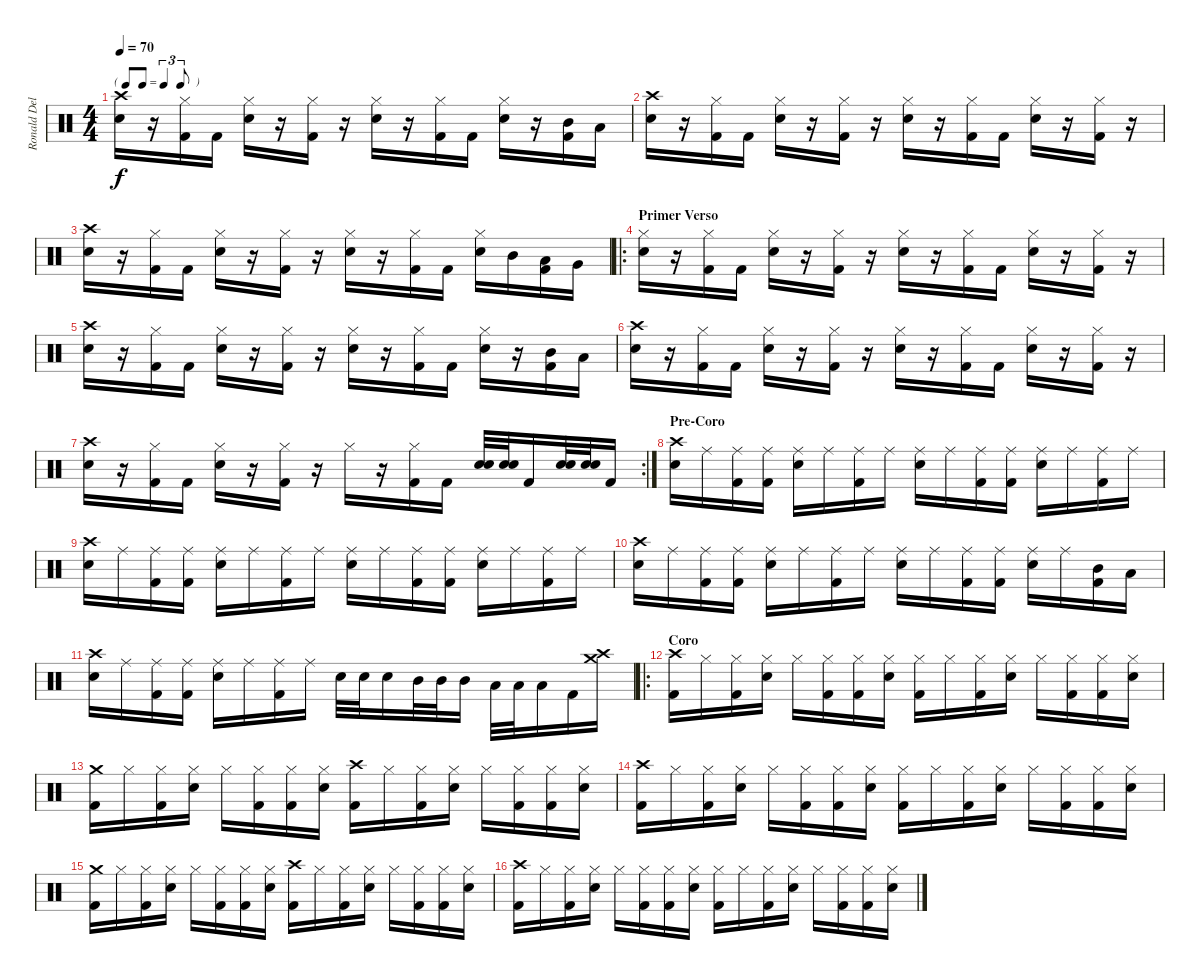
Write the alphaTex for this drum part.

\track ("Ronald Del Aguila (Bateria)" "Ronald Del") {instrument percussion}
\staff {score}
\articulation defaults
\ts (4 4)
\tf triplet8th
\tempo 70
\clef neutral
\ks c
("Crash high (hit)" "Snare (hit) 2").16{dy f} r.16 ("Hi-Hat (closed)" "Kick (hit) 2").16 "Kick (hit) 2".16 ("Hi-Hat (closed)" "Snare (hit) 2").16 r.16 ("Hi-Hat (closed)" "Kick (hit) 2").16 r.16 ("Hi-Hat (closed)" "Snare (hit) 2").16 r.16 ("Hi-Hat (closed)" "Kick (hit) 2").16 "Kick (hit) 2".16 ("Hi-Hat (closed)" "Snare (hit) 2").16 r.16 ("Mid Tom (hit)" "Kick (hit) 2").16 "Low Tom (hit)".16 |
("Crash high (hit)" "Snare (hit) 2").16 r.16 ("Hi-Hat (closed)" "Kick (hit) 2").16 "Kick (hit) 2".16 ("Hi-Hat (closed)" "Snare (hit) 2").16 r.16 ("Hi-Hat (closed)" "Kick (hit) 2").16 r.16 ("Hi-Hat (closed)" "Snare (hit) 2").16 r.16 ("Hi-Hat (closed)" "Kick (hit) 2").16 "Kick (hit) 2".16 ("Hi-Hat (closed)" "Snare (hit) 2").16 r.16 ("Hi-Hat (closed)" "Kick (hit) 2").16 r.16 |
("Crash high (hit)" "Snare (hit) 2").16 r.16 ("Hi-Hat (closed)" "Kick (hit) 2").16 "Kick (hit) 2".16 ("Hi-Hat (closed)" "Snare (hit) 2").16 r.16 ("Hi-Hat (closed)" "Kick (hit) 2").16 r.16 ("Hi-Hat (closed)" "Snare (hit) 2").16 r.16 ("Hi-Hat (closed)" "Kick (hit) 2").16 "Kick (hit) 2".16 ("Hi-Hat (closed)" "Snare (hit) 2").16 "Mid Tom (hit)".16 ("Low Tom (hit)" "Kick (hit) 2").16 "Very Low Tom (hit)".16 |
\ro
\section ("" "Primer Verso")
("Hi-Hat (closed)" "Snare (hit) 2").16 r.16 ("Hi-Hat (closed)" "Kick (hit) 2").16 "Kick (hit) 2".16 ("Hi-Hat (closed)" "Snare (hit) 2").16 r.16 ("Hi-Hat (closed)" "Kick (hit) 2").16 r.16 ("Hi-Hat (closed)" "Snare (hit) 2").16 r.16 ("Hi-Hat (closed)" "Kick (hit) 2").16 "Kick (hit) 2".16 ("Hi-Hat (closed)" "Snare (hit) 2").16 r.16 ("Hi-Hat (closed)" "Kick (hit) 2").16 r.16 |
("Crash high (hit)" "Snare (hit) 2").16 r.16 ("Hi-Hat (closed)" "Kick (hit) 2").16 "Kick (hit) 2".16 ("Hi-Hat (closed)" "Snare (hit) 2").16 r.16 ("Hi-Hat (closed)" "Kick (hit) 2").16 r.16 ("Hi-Hat (closed)" "Snare (hit) 2").16 r.16 ("Hi-Hat (closed)" "Kick (hit) 2").16 "Kick (hit) 2".16 ("Hi-Hat (closed)" "Snare (hit) 2").16 r.16 ("Mid Tom (hit)" "Kick (hit) 2").16 "Low Tom (hit)".16 |
("Crash high (hit)" "Snare (hit) 2").16 r.16 ("Hi-Hat (closed)" "Kick (hit) 2").16 "Kick (hit) 2".16 ("Hi-Hat (closed)" "Snare (hit) 2").16 r.16 ("Hi-Hat (closed)" "Kick (hit) 2").16 r.16 ("Hi-Hat (closed)" "Snare (hit) 2").16 r.16 ("Hi-Hat (closed)" "Kick (hit) 2").16 "Kick (hit) 2".16 ("Hi-Hat (closed)" "Snare (hit) 2").16 r.16 ("Hi-Hat (closed)" "Kick (hit) 2").16 r.16 |
\rc 2
("Crash high (hit)" "Snare (hit) 2").16 r.16 ("Hi-Hat (closed)" "Kick (hit) 2").16 "Kick (hit) 2".16 ("Hi-Hat (closed)" "Snare (hit) 2").16 r.16 ("Hi-Hat (closed)" "Kick (hit) 2").16 r.16 "Hi-Hat (closed)".16 r.16 ("Hi-Hat (closed)" "Kick (hit) 2").16 "Kick (hit) 2".16 ("Snare (hit) 2" "Snare (hit) 2").32 ("Snare (hit) 2" "Snare (hit) 2").32 "Kick (hit) 2".16 ("Snare (hit) 2" "Snare (hit) 2").32 ("Snare (hit) 2" "Snare (hit) 2").32 "Kick (hit) 2".16 |
\section ("" "Pre-Coro")
("Crash high (hit)" "Snare (hit) 2").16 "Ride (middle)".16 ("Ride (middle)" "Kick (hit) 2").16 ("Ride (middle)" "Kick (hit) 2").16 ("Ride (middle)" "Snare (hit) 2").16 "Ride (middle)".16 ("Ride (middle)" "Kick (hit) 2").16 "Ride (middle)".16 ("Ride (middle)" "Snare (hit) 2").16 "Ride (middle)".16 ("Ride (middle)" "Kick (hit) 2").16 ("Ride (middle)" "Kick (hit) 2").16 ("Ride (middle)" "Snare (hit) 2").16 "Ride (middle)".16 ("Ride (middle)" "Kick (hit) 2").16 "Ride (middle)".16 |
("Crash high (hit)" "Snare (hit) 2").16 "Ride (middle)".16 ("Ride (middle)" "Kick (hit) 2").16 ("Ride (middle)" "Kick (hit) 2").16 ("Ride (middle)" "Snare (hit) 2").16 "Ride (middle)".16 ("Ride (middle)" "Kick (hit) 2").16 "Ride (middle)".16 ("Ride (middle)" "Snare (hit) 2").16 "Ride (middle)".16 ("Ride (middle)" "Kick (hit) 2").16 ("Ride (middle)" "Kick (hit) 2").16 ("Ride (middle)" "Snare (hit) 2").16 "Ride (middle)".16 ("Ride (middle)" "Kick (hit) 2").16 "Ride (middle)".16 |
("Crash high (hit)" "Snare (hit) 2").16 "Ride (middle)".16 ("Ride (middle)" "Kick (hit) 2").16 ("Ride (middle)" "Kick (hit) 2").16 ("Ride (middle)" "Snare (hit) 2").16 "Ride (middle)".16 ("Ride (middle)" "Kick (hit) 2").16 "Ride (middle)".16 ("Ride (middle)" "Snare (hit) 2").16 "Ride (middle)".16 ("Ride (middle)" "Kick (hit) 2").16 ("Ride (middle)" "Kick (hit) 2").16 ("Ride (middle)" "Snare (hit) 2").16 "Ride (middle)".16 ("Mid Tom (hit)" "Kick (hit) 2").16 "Low Tom (hit)".16 |
("Crash high (hit)" "Snare (hit) 2").16 "Ride (middle)".16 ("Ride (middle)" "Kick (hit) 2").16 ("Ride (middle)" "Kick (hit) 2").16 ("Ride (middle)" "Snare (hit) 2").16 "Ride (middle)".16 ("Ride (middle)" "Kick (hit) 2").16 "Ride (middle)".16 "Snare (hit) 2".32 "Snare (hit) 2".32 "Snare (hit) 2".16 "Mid Tom (hit)".32 "Mid Tom (hit)".32 "Mid Tom (hit)".16 "Low Tom (hit)".32 "Low Tom (hit)".32 "Low Tom (hit)".16 "Kick (hit) 2".16 ("Crash high (hit)" "Crash medium (hit)").16 |
\ro
\section ("" "Coro")
("Crash high (hit)" "Kick (hit) 2").16 "Hi-Hat (closed)".16 ("Hi-Hat (closed)" "Kick (hit) 2").16 ("Hi-Hat (closed)" "Snare (hit) 2").16 "Hi-Hat (closed)".16 ("Hi-Hat (closed)" "Kick (hit) 2").16 ("Hi-Hat (closed)" "Kick (hit) 2").16 ("Hi-Hat (closed)" "Snare (hit) 2").16 ("Hi-Hat (closed)" "Kick (hit) 2").16 "Hi-Hat (closed)".16 ("Hi-Hat (closed)" "Kick (hit) 2").16 ("Hi-Hat (closed)" "Snare (hit) 2").16 "Hi-Hat (closed)".16 ("Hi-Hat (closed)" "Kick (hit) 2").16 ("Hi-Hat (closed)" "Kick (hit) 2").16 ("Hi-Hat (closed)" "Snare (hit) 2").16 |
("Crash medium (hit)" "Kick (hit) 2").16 "Hi-Hat (closed)".16 ("Hi-Hat (closed)" "Kick (hit) 2").16 ("Hi-Hat (closed)" "Snare (hit) 2").16 "Hi-Hat (closed)".16 ("Hi-Hat (closed)" "Kick (hit) 2").16 ("Hi-Hat (closed)" "Kick (hit) 2").16 ("Hi-Hat (closed)" "Snare (hit) 2").16 ("Crash high (hit)" "Kick (hit) 2").16 "Hi-Hat (closed)".16 ("Hi-Hat (closed)" "Kick (hit) 2").16 ("Hi-Hat (closed)" "Snare (hit) 2").16 "Hi-Hat (closed)".16 ("Hi-Hat (closed)" "Kick (hit) 2").16 ("Hi-Hat (closed)" "Kick (hit) 2").16 ("Hi-Hat (closed)" "Snare (hit) 2").16 |
("Crash high (hit)" "Kick (hit) 2").16 "Hi-Hat (closed)".16 ("Hi-Hat (closed)" "Kick (hit) 2").16 ("Hi-Hat (closed)" "Snare (hit) 2").16 "Hi-Hat (closed)".16 ("Hi-Hat (closed)" "Kick (hit) 2").16 ("Hi-Hat (closed)" "Kick (hit) 2").16 ("Hi-Hat (closed)" "Snare (hit) 2").16 ("Hi-Hat (closed)" "Kick (hit) 2").16 "Hi-Hat (closed)".16 ("Hi-Hat (closed)" "Kick (hit) 2").16 ("Hi-Hat (closed)" "Snare (hit) 2").16 "Hi-Hat (closed)".16 ("Hi-Hat (closed)" "Kick (hit) 2").16 ("Hi-Hat (closed)" "Kick (hit) 2").16 ("Hi-Hat (closed)" "Snare (hit) 2").16 |
("Crash medium (hit)" "Kick (hit) 2").16 "Hi-Hat (closed)".16 ("Hi-Hat (closed)" "Kick (hit) 2").16 ("Hi-Hat (closed)" "Snare (hit) 2").16 "Hi-Hat (closed)".16 ("Hi-Hat (closed)" "Kick (hit) 2").16 ("Hi-Hat (closed)" "Kick (hit) 2").16 ("Hi-Hat (closed)" "Snare (hit) 2").16 ("Crash high (hit)" "Kick (hit) 2").16 "Hi-Hat (closed)".16 ("Hi-Hat (closed)" "Kick (hit) 2").16 ("Hi-Hat (closed)" "Snare (hit) 2").16 "Hi-Hat (closed)".16 ("Hi-Hat (closed)" "Kick (hit) 2").16 ("Hi-Hat (closed)" "Kick (hit) 2").16 ("Hi-Hat (closed)" "Snare (hit) 2").16 |
("Crash high (hit)" "Kick (hit) 2").16 "Hi-Hat (closed)".16 ("Hi-Hat (closed)" "Kick (hit) 2").16 ("Hi-Hat (closed)" "Snare (hit) 2").16 "Hi-Hat (closed)".16 ("Hi-Hat (closed)" "Kick (hit) 2").16 ("Hi-Hat (closed)" "Kick (hit) 2").16 ("Hi-Hat (closed)" "Snare (hit) 2").16 ("Hi-Hat (closed)" "Kick (hit) 2").16 "Hi-Hat (closed)".16 ("Hi-Hat (closed)" "Kick (hit) 2").16 ("Hi-Hat (closed)" "Snare (hit) 2").16 "Hi-Hat (closed)".16 ("Hi-Hat (closed)" "Kick (hit) 2").16 ("Hi-Hat (closed)" "Kick (hit) 2").16 ("Hi-Hat (closed)" "Snare (hit) 2").16
